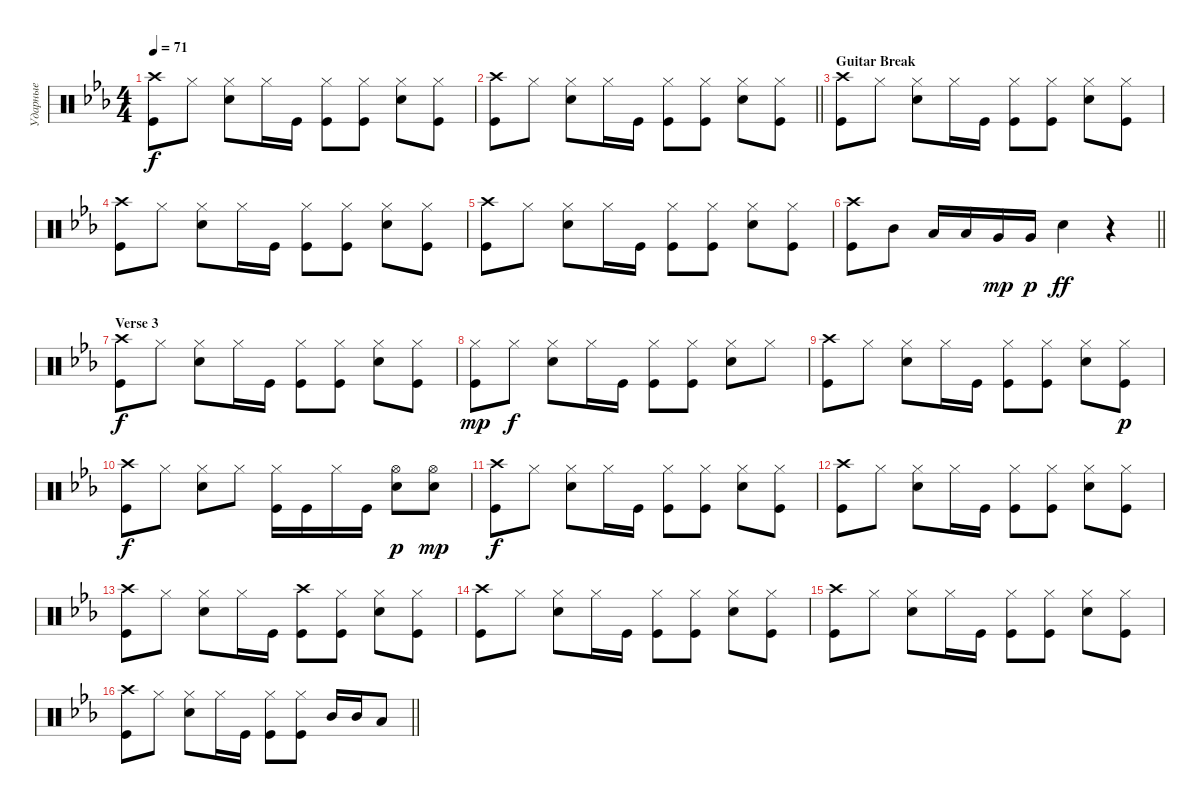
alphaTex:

\track ("Ударные" "Ударные") {instrument percussion}
\staff {score}
\articulation defaults
\ts (4 4)
\tempo 71
\clef neutral
\ks cminor
("Kick (hit)" "Crash high (hit)").8{dy f} "Hi-Hat (closed)".8 ("Snare (hit) 2" "Hi-Hat (closed)").8 "Hi-Hat (closed)".16 "Kick (hit)".16 ("Hi-Hat (closed)" "Kick (hit)").8 ("Hi-Hat (closed)" "Kick (hit)").8 ("Hi-Hat (closed)" "Snare (hit) 2").8 ("Hi-Hat (closed)" "Kick (hit)").8 |
\barLineRight lightlight
("Kick (hit)" "Crash high (hit)").8 "Hi-Hat (closed)".8 ("Snare (hit) 2" "Hi-Hat (closed)").8 "Hi-Hat (closed)".16 "Kick (hit)".16 ("Hi-Hat (closed)" "Kick (hit)").8 ("Hi-Hat (closed)" "Kick (hit)").8 ("Hi-Hat (closed)" "Snare (hit) 2").8 ("Hi-Hat (closed)" "Kick (hit)").8 |
\section ("" "Guitar Break")
("Kick (hit)" "Crash high (hit)").8 "Hi-Hat (closed)".8 ("Snare (hit) 2" "Hi-Hat (closed)").8 "Hi-Hat (closed)".16 "Kick (hit)".16 ("Hi-Hat (closed)" "Kick (hit)").8 ("Hi-Hat (closed)" "Kick (hit)").8 ("Hi-Hat (closed)" "Snare (hit) 2").8 ("Hi-Hat (closed)" "Kick (hit)").8 |
("Kick (hit)" "Crash high (hit)").8 "Hi-Hat (closed)".8 ("Snare (hit) 2" "Hi-Hat (closed)").8 "Hi-Hat (closed)".16 "Kick (hit)".16 ("Hi-Hat (closed)" "Kick (hit)").8 ("Hi-Hat (closed)" "Kick (hit)").8 ("Hi-Hat (closed)" "Snare (hit) 2").8 ("Hi-Hat (closed)" "Kick (hit)").8 |
("Kick (hit)" "Crash high (hit)").8 "Hi-Hat (closed)".8 ("Snare (hit) 2" "Hi-Hat (closed)").8 "Hi-Hat (closed)".16 "Kick (hit)".16 ("Hi-Hat (closed)" "Kick (hit)").8 ("Hi-Hat (closed)" "Kick (hit)").8 ("Hi-Hat (closed)" "Snare (hit) 2").8 ("Hi-Hat (closed)" "Kick (hit)").8 |
\barLineRight lightlight
("Kick (hit)" "Crash high (hit)").8 "Mid Tom (hit)".8 "Low Tom (hit)".16 "Low Tom (hit)".16 "Very Low Tom (hit)".16{dy mp} "Very Low Tom (hit)".16{dy p} "Snare (hit) 2".4{bd 120 dy ff} r.4 |
\section ("" "Verse 3")
("Kick (hit)" "Crash high (hit)").8{dy f} "Hi-Hat (closed)".8 ("Snare (hit) 2" "Hi-Hat (closed)").8 "Hi-Hat (closed)".16 "Kick (hit)".16 ("Hi-Hat (closed)" "Kick (hit)").8 ("Hi-Hat (closed)" "Kick (hit)").8 ("Hi-Hat (closed)" "Snare (hit) 2").8 ("Hi-Hat (closed)" "Kick (hit)").8 |
("Kick (hit)" "Hi-Hat (closed)").8{dy mp} "Hi-Hat (closed)".8{dy f} ("Snare (hit) 2" "Hi-Hat (closed)").8 "Hi-Hat (closed)".16 "Kick (hit)".16 ("Hi-Hat (closed)" "Kick (hit)").8 ("Hi-Hat (closed)" "Kick (hit)").8 ("Hi-Hat (closed)" "Snare (hit) 2").8 "Hi-Hat (closed)".8 |
("Kick (hit)" "Crash high (hit)").8 "Hi-Hat (closed)".8 ("Snare (hit) 2" "Hi-Hat (closed)").8 "Hi-Hat (closed)".16 "Kick (hit)".16 ("Hi-Hat (closed)" "Kick (hit)").8 ("Hi-Hat (closed)" "Kick (hit)").8 ("Hi-Hat (closed)" "Snare (hit) 2").8 ("Hi-Hat (closed)" "Kick (hit)").8{dy p} |
("Kick (hit)" "Crash high (hit)").8{dy f} "Hi-Hat (closed)".8 ("Snare (hit) 2" "Hi-Hat (closed)").8 "Hi-Hat (closed)".8 ("Hi-Hat (closed)" "Kick (hit)").16 "Kick (hit)".16 "Hi-Hat (closed)".16 "Kick (hit)".16 ("Hi-Hat (open)" "Snare (hit) 2").8{dy p} ("Hi-Hat (open)" "Snare (hit) 2").8{dy mp} |
("Kick (hit)" "Crash high (hit)").8{dy f} "Hi-Hat (closed)".8 ("Snare (hit) 2" "Hi-Hat (closed)").8 "Hi-Hat (closed)".16 "Kick (hit)".16 ("Hi-Hat (closed)" "Kick (hit)").8 ("Hi-Hat (closed)" "Kick (hit)").8 ("Hi-Hat (closed)" "Snare (hit) 2").8 ("Hi-Hat (closed)" "Kick (hit)").8 |
("Kick (hit)" "Crash high (hit)").8 "Hi-Hat (closed)".8 ("Snare (hit) 2" "Hi-Hat (closed)").8 "Hi-Hat (closed)".16 "Kick (hit)".16 ("Hi-Hat (closed)" "Kick (hit)").8 ("Hi-Hat (closed)" "Kick (hit)").8 ("Hi-Hat (closed)" "Snare (hit) 2").8 ("Hi-Hat (closed)" "Kick (hit)").8 |
("Kick (hit)" "Crash high (hit)").8 "Hi-Hat (closed)".8 ("Snare (hit) 2" "Hi-Hat (closed)").8 "Hi-Hat (closed)".16 "Kick (hit)".16 ("Kick (hit)" "Crash high (hit)").8 ("Hi-Hat (closed)" "Kick (hit)").8 ("Hi-Hat (closed)" "Snare (hit) 2").8 ("Hi-Hat (closed)" "Kick (hit)").8 |
("Kick (hit)" "Crash high (hit)").8 "Hi-Hat (closed)".8 ("Snare (hit) 2" "Hi-Hat (closed)").8 "Hi-Hat (closed)".16 "Kick (hit)".16 ("Hi-Hat (closed)" "Kick (hit)").8 ("Hi-Hat (closed)" "Kick (hit)").8 ("Hi-Hat (closed)" "Snare (hit) 2").8 ("Hi-Hat (closed)" "Kick (hit)").8 |
("Kick (hit)" "Crash high (hit)").8 "Hi-Hat (closed)".8 ("Snare (hit) 2" "Hi-Hat (closed)").8 "Hi-Hat (closed)".16 "Kick (hit)".16 ("Hi-Hat (closed)" "Kick (hit)").8 ("Hi-Hat (closed)" "Kick (hit)").8 ("Hi-Hat (closed)" "Snare (hit) 2").8 ("Hi-Hat (closed)" "Kick (hit)").8 |
\barLineRight lightlight
("Kick (hit)" "Crash high (hit)").8 "Hi-Hat (closed)".8 ("Snare (hit) 2" "Hi-Hat (closed)").8 "Hi-Hat (closed)".16 "Kick (hit)".16 ("Hi-Hat (closed)" "Kick (hit)").8 ("Hi-Hat (closed)" "Kick (hit)").8 "Mid Tom (hit)".16 "Mid Tom (hit)".16 "Low Tom (hit)".8
